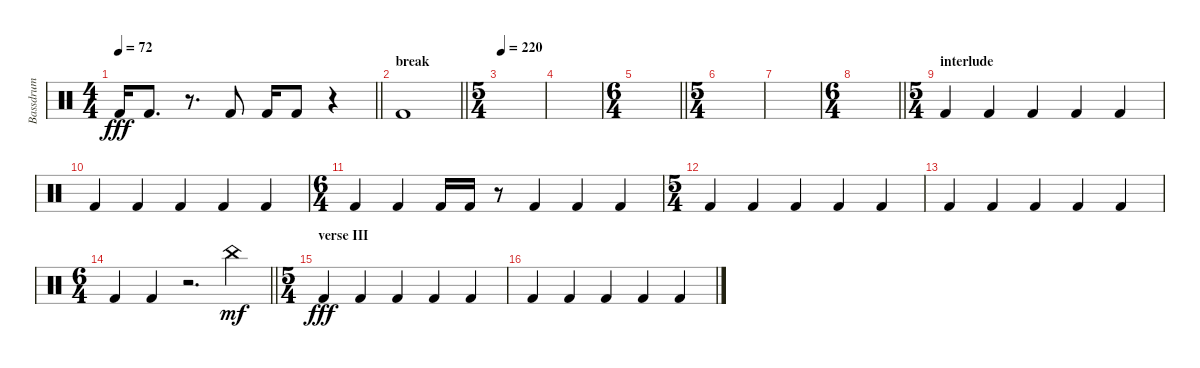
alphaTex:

\track ("Bassdrum" "Bassdrum") {instrument percussion}
\staff {score}
\articulation defaults
\ts (4 4)
\tempo 72
\clef neutral
\barLineRight lightlight
\ks c "Kick (hit) 2".16{dy fff} "Kick (hit) 2".8{d}
r.8{d} "Kick (hit) 2".8 "Kick (hit) 2".16 "Kick (hit) 2".8 r.4 |
\section ("" "break")
\barLineRight lightlight "Kick (hit) 2".1
|
\ts (5 4)
\section ("" "")
\tempo 220
|
|
\ts (6 4)
\barLineRight lightlight
|
\ts (5 4)
|
|
\ts (6 4)
\barLineRight lightlight
|
\ts (5 4)
\section ("" "interlude")
"Kick (hit) 2".4 "Kick (hit) 2".4 "Kick (hit) 2".4 "Kick (hit) 2".4 "Kick (hit) 2".4 |
"Kick (hit) 2".4 "Kick (hit) 2".4 "Kick (hit) 2".4 "Kick (hit) 2".4 "Kick (hit) 2".4 |
\ts (6 4)
"Kick (hit) 2".4 "Kick (hit) 2".4 "Kick (hit) 2".16 "Kick (hit) 2".16 r.8 "Kick (hit) 2".4 "Kick (hit) 2".4 "Kick (hit) 2".4 |
\ts (5 4)
"Kick (hit) 2".4 "Kick (hit) 2".4 "Kick (hit) 2".4 "Kick (hit) 2".4 "Kick (hit) 2".4 |
"Kick (hit) 2".4 "Kick (hit) 2".4 "Kick (hit) 2".4 "Kick (hit) 2".4 "Kick (hit) 2".4 |
\ts (6 4)
\barLineRight lightlight "Kick (hit) 2".4 "Kick (hit) 2".4
r.2{d} "China (hit)".4{dy mf} |
\ts (5 4)
\section ("" "verse III")
"Kick (hit) 2".4{dy fff} "Kick (hit) 2".4 "Kick (hit) 2".4 "Kick (hit) 2".4 "Kick (hit) 2".4 |
"Kick (hit) 2".4 "Kick (hit) 2".4 "Kick (hit) 2".4 "Kick (hit) 2".4 "Kick (hit) 2".4
